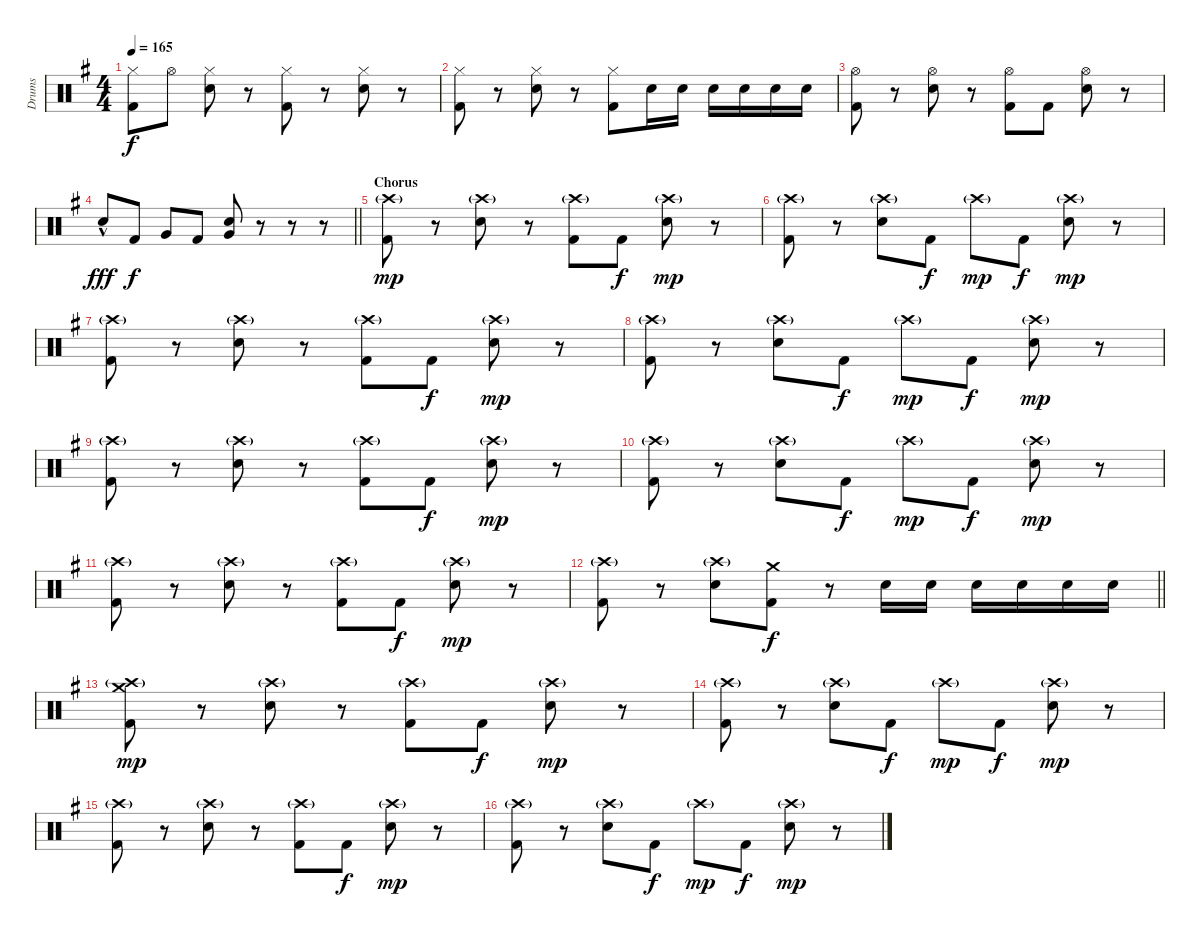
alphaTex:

\track ("Drums" "Drums") {instrument percussion}
\staff {score}
\articulation defaults
\ts (4 4)
\tempo 165
\clef neutral
\ks eminor
("Hi-Hat (closed)" "Kick (hit) 2").8{dy f} "Hi-Hat (open)".8 ("Hi-Hat (closed)" "Electric Snare (hit)").8 r.8 ("Hi-Hat (closed)" "Kick (hit) 2").8 r.8 ("Hi-Hat (closed)" "Electric Snare (hit)").8 r.8 |
("Hi-Hat (closed)" "Kick (hit) 2").8 r.8 ("Hi-Hat (closed)" "Electric Snare (hit)").8 r.8 ("Hi-Hat (closed)" "Kick (hit) 2").8 "Electric Snare (hit)".16 "Electric Snare (hit)".16 "Electric Snare (hit)".16 "Electric Snare (hit)".16 "Electric Snare (hit)".16 "Electric Snare (hit)".16 |
("Hi-Hat (open)" "Kick (hit) 2").8 r.8 ("Hi-Hat (open)" "Electric Snare (hit)").8 r.8 ("Hi-Hat (open)" "Kick (hit) 2").8 "Kick (hit) 2".8 ("Hi-Hat (open)" "Electric Snare (hit)").8 r.8 |
\barLineRight lightlight "Electric Snare (hit)"{hac}.8{dy fff} "Kick (hit) 2".8{dy f} "Very Low Tom (hit)".8 "Kick (hit) 2".8
("Very Low Tom (hit)" "Electric Snare (hit)").8 r.8 r.8 r.8 |
\section ("" "Chorus")
("Crash high (hit)"{g} "Kick (hit) 2").8{dy mp} r.8 ("Crash high (hit)"{g} "Electric Snare (hit)").8 r.8 ("Crash high (hit)"{g} "Kick (hit) 2").8 "Kick (hit) 2".8{dy f} ("Crash high (hit)"{g} "Electric Snare (hit)").8{dy mp} r.8 |
("Crash high (hit)"{g} "Kick (hit) 2").8 r.8 ("Crash high (hit)"{g} "Electric Snare (hit)").8 "Kick (hit) 2".8{dy f} "Crash high (hit)"{g}.8{dy mp} "Kick (hit) 2".8{dy f} ("Crash high (hit)"{g} "Electric Snare (hit)").8{dy mp} r.8 |
("Crash high (hit)"{g} "Kick (hit) 2").8 r.8 ("Crash high (hit)"{g} "Electric Snare (hit)").8 r.8 ("Crash high (hit)"{g} "Kick (hit) 2").8 "Kick (hit) 2".8{dy f} ("Crash high (hit)"{g} "Electric Snare (hit)").8{dy mp} r.8 |
("Crash high (hit)"{g} "Kick (hit) 2").8 r.8 ("Crash high (hit)"{g} "Electric Snare (hit)").8 "Kick (hit) 2".8{dy f} "Crash high (hit)"{g}.8{dy mp} "Kick (hit) 2".8{dy f} ("Crash high (hit)"{g} "Electric Snare (hit)").8{dy mp} r.8 |
("Crash high (hit)"{g} "Kick (hit) 2").8 r.8 ("Crash high (hit)"{g} "Electric Snare (hit)").8 r.8 ("Crash high (hit)"{g} "Kick (hit) 2").8 "Kick (hit) 2".8{dy f} ("Crash high (hit)"{g} "Electric Snare (hit)").8{dy mp} r.8 |
("Crash high (hit)"{g} "Kick (hit) 2").8 r.8 ("Crash high (hit)"{g} "Electric Snare (hit)").8 "Kick (hit) 2".8{dy f} "Crash high (hit)"{g}.8{dy mp} "Kick (hit) 2".8{dy f} ("Crash high (hit)"{g} "Electric Snare (hit)").8{dy mp} r.8 |
("Crash high (hit)"{g} "Kick (hit) 2").8 r.8 ("Crash high (hit)"{g} "Electric Snare (hit)").8 r.8 ("Crash high (hit)"{g} "Kick (hit) 2").8 "Kick (hit) 2".8{dy f} ("Crash high (hit)"{g} "Electric Snare (hit)").8{dy mp} r.8 |
\barLineRight lightlight
("Crash high (hit)"{g} "Kick (hit) 2").8 r.8 ("Crash high (hit)"{g} "Electric Snare (hit)").8 ("Crash medium (hit)" "Kick (hit) 2").8{dy f} r.8 "Electric Snare (hit)".16 "Electric Snare (hit)".16 "Electric Snare (hit)".16 "Electric Snare (hit)".16 "Electric Snare (hit)".16 "Electric Snare (hit)".16 |
("Crash high (hit)"{g} "Crash medium (hit)" "Kick (hit) 2").8{dy mp} r.8 ("Crash high (hit)"{g} "Electric Snare (hit)").8 r.8 ("Crash high (hit)"{g} "Kick (hit) 2").8 "Kick (hit) 2".8{dy f} ("Crash high (hit)"{g} "Electric Snare (hit)").8{dy mp} r.8 |
("Crash high (hit)"{g} "Kick (hit) 2").8 r.8 ("Crash high (hit)"{g} "Electric Snare (hit)").8 "Kick (hit) 2".8{dy f} "Crash high (hit)"{g}.8{dy mp} "Kick (hit) 2".8{dy f} ("Crash high (hit)"{g} "Electric Snare (hit)").8{dy mp} r.8 |
("Crash high (hit)"{g} "Kick (hit) 2").8 r.8 ("Crash high (hit)"{g} "Electric Snare (hit)").8 r.8 ("Crash high (hit)"{g} "Kick (hit) 2").8 "Kick (hit) 2".8{dy f} ("Crash high (hit)"{g} "Electric Snare (hit)").8{dy mp} r.8 |
("Crash high (hit)"{g} "Kick (hit) 2").8 r.8 ("Crash high (hit)"{g} "Electric Snare (hit)").8 "Kick (hit) 2".8{dy f} "Crash high (hit)"{g}.8{dy mp} "Kick (hit) 2".8{dy f} ("Crash high (hit)"{g} "Electric Snare (hit)").8{dy mp} r.8
